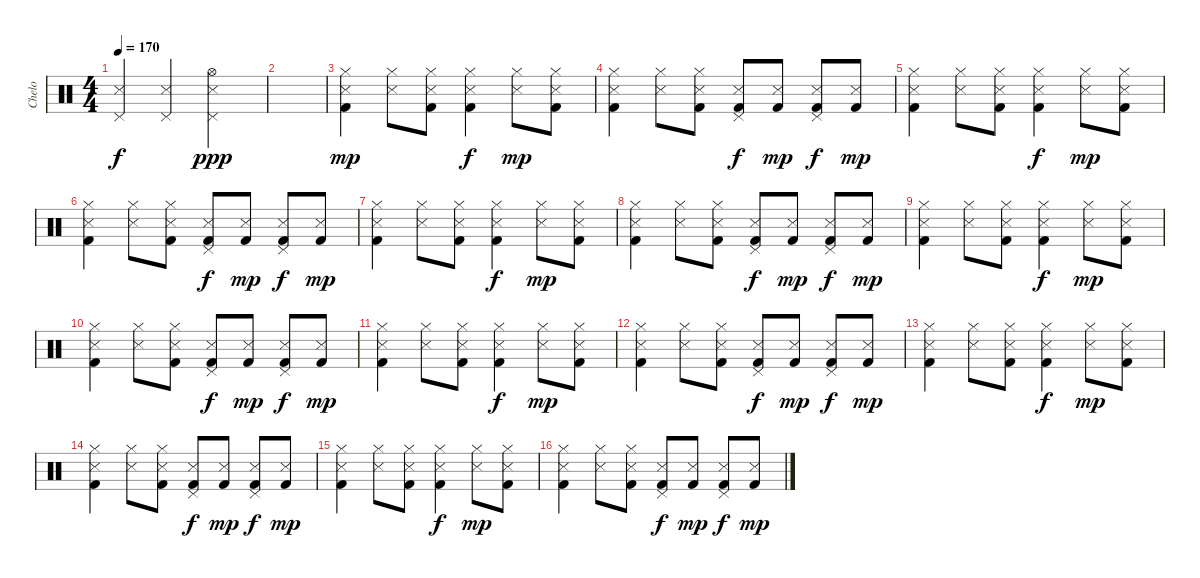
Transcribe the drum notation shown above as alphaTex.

\track ("Chelo" "Chelo") {instrument percussion}
\staff {score}
\articulation defaults
\ts (4 4)
\tempo 170
\clef neutral
\ks c
("Snare (side stick) 3" "Pedal Hi-Hat (hit)").4{dy f} ("Snare (side stick) 3" "Pedal Hi-Hat (hit)").4 ("Snare (side stick) 3" "Pedal Hi-Hat (hit)" "Hi-Hat (open)").2{dy ppp} |
|
("Kick (hit) 2" "Hi-Hat (closed)" "Snare (side stick) 3").4{dy mp} ("Snare (side stick) 3" "Hi-Hat (closed)").8 ("Kick (hit) 2" "Hi-Hat (closed)" "Snare (side stick) 3").8 ("Kick (hit) 2" "Hi-Hat (closed)" "Snare (side stick) 3").4{dy f} ("Snare (side stick) 3" "Hi-Hat (closed)").8{dy mp} ("Kick (hit) 2" "Hi-Hat (closed)" "Snare (side stick) 3").8 |
("Kick (hit) 2" "Hi-Hat (closed)" "Snare (side stick) 3").4 ("Snare (side stick) 3" "Hi-Hat (closed)").8 ("Kick (hit) 2" "Hi-Hat (closed)" "Snare (side stick) 3").8 ("Kick (hit) 2" "Pedal Hi-Hat (hit)" "Snare (side stick) 3").8{dy f} ("Kick (hit) 2" "Snare (side stick) 3").8{dy mp} ("Kick (hit) 2" "Pedal Hi-Hat (hit)" "Snare (side stick) 3").8{dy f} ("Kick (hit) 2" "Snare (side stick) 3").8{dy mp} |
("Kick (hit) 2" "Hi-Hat (closed)" "Snare (side stick) 3").4 ("Snare (side stick) 3" "Hi-Hat (closed)").8 ("Kick (hit) 2" "Hi-Hat (closed)" "Snare (side stick) 3").8 ("Kick (hit) 2" "Hi-Hat (closed)" "Snare (side stick) 3").4{dy f} ("Snare (side stick) 3" "Hi-Hat (closed)").8{dy mp} ("Kick (hit) 2" "Hi-Hat (closed)" "Snare (side stick) 3").8 |
("Kick (hit) 2" "Hi-Hat (closed)" "Snare (side stick) 3").4 ("Snare (side stick) 3" "Hi-Hat (closed)").8 ("Kick (hit) 2" "Hi-Hat (closed)" "Snare (side stick) 3").8 ("Kick (hit) 2" "Pedal Hi-Hat (hit)" "Snare (side stick) 3").8{dy f} ("Kick (hit) 2" "Snare (side stick) 3").8{dy mp} ("Kick (hit) 2" "Pedal Hi-Hat (hit)" "Snare (side stick) 3").8{dy f} ("Kick (hit) 2" "Snare (side stick) 3").8{dy mp} |
("Kick (hit) 2" "Hi-Hat (closed)" "Snare (side stick) 3").4 ("Snare (side stick) 3" "Hi-Hat (closed)").8 ("Kick (hit) 2" "Hi-Hat (closed)" "Snare (side stick) 3").8 ("Kick (hit) 2" "Hi-Hat (closed)" "Snare (side stick) 3").4{dy f} ("Snare (side stick) 3" "Hi-Hat (closed)").8{dy mp} ("Kick (hit) 2" "Hi-Hat (closed)" "Snare (side stick) 3").8 |
("Kick (hit) 2" "Hi-Hat (closed)" "Snare (side stick) 3").4 ("Snare (side stick) 3" "Hi-Hat (closed)").8 ("Kick (hit) 2" "Hi-Hat (closed)" "Snare (side stick) 3").8 ("Kick (hit) 2" "Pedal Hi-Hat (hit)" "Snare (side stick) 3").8{dy f} ("Kick (hit) 2" "Snare (side stick) 3").8{dy mp} ("Kick (hit) 2" "Pedal Hi-Hat (hit)" "Snare (side stick) 3").8{dy f} ("Kick (hit) 2" "Snare (side stick) 3").8{dy mp} |
("Kick (hit) 2" "Hi-Hat (closed)" "Snare (side stick) 3").4 ("Snare (side stick) 3" "Hi-Hat (closed)").8 ("Kick (hit) 2" "Hi-Hat (closed)" "Snare (side stick) 3").8 ("Kick (hit) 2" "Hi-Hat (closed)" "Snare (side stick) 3").4{dy f} ("Snare (side stick) 3" "Hi-Hat (closed)").8{dy mp} ("Kick (hit) 2" "Hi-Hat (closed)" "Snare (side stick) 3").8 |
("Kick (hit) 2" "Hi-Hat (closed)" "Snare (side stick) 3").4 ("Snare (side stick) 3" "Hi-Hat (closed)").8 ("Kick (hit) 2" "Hi-Hat (closed)" "Snare (side stick) 3").8 ("Kick (hit) 2" "Pedal Hi-Hat (hit)" "Snare (side stick) 3").8{dy f} ("Kick (hit) 2" "Snare (side stick) 3").8{dy mp} ("Kick (hit) 2" "Pedal Hi-Hat (hit)" "Snare (side stick) 3").8{dy f} ("Kick (hit) 2" "Snare (side stick) 3").8{dy mp} |
("Kick (hit) 2" "Hi-Hat (closed)" "Snare (side stick) 3").4 ("Snare (side stick) 3" "Hi-Hat (closed)").8 ("Kick (hit) 2" "Hi-Hat (closed)" "Snare (side stick) 3").8 ("Kick (hit) 2" "Hi-Hat (closed)" "Snare (side stick) 3").4{dy f} ("Snare (side stick) 3" "Hi-Hat (closed)").8{dy mp} ("Kick (hit) 2" "Hi-Hat (closed)" "Snare (side stick) 3").8 |
("Kick (hit) 2" "Hi-Hat (closed)" "Snare (side stick) 3").4 ("Snare (side stick) 3" "Hi-Hat (closed)").8 ("Kick (hit) 2" "Hi-Hat (closed)" "Snare (side stick) 3").8 ("Kick (hit) 2" "Pedal Hi-Hat (hit)" "Snare (side stick) 3").8{dy f} ("Kick (hit) 2" "Snare (side stick) 3").8{dy mp} ("Kick (hit) 2" "Pedal Hi-Hat (hit)" "Snare (side stick) 3").8{dy f} ("Kick (hit) 2" "Snare (side stick) 3").8{dy mp} |
("Kick (hit) 2" "Hi-Hat (closed)" "Snare (side stick) 3").4 ("Snare (side stick) 3" "Hi-Hat (closed)").8 ("Kick (hit) 2" "Hi-Hat (closed)" "Snare (side stick) 3").8 ("Kick (hit) 2" "Hi-Hat (closed)" "Snare (side stick) 3").4{dy f} ("Snare (side stick) 3" "Hi-Hat (closed)").8{dy mp} ("Kick (hit) 2" "Hi-Hat (closed)" "Snare (side stick) 3").8 |
("Kick (hit) 2" "Hi-Hat (closed)" "Snare (side stick) 3").4 ("Snare (side stick) 3" "Hi-Hat (closed)").8 ("Kick (hit) 2" "Hi-Hat (closed)" "Snare (side stick) 3").8 ("Kick (hit) 2" "Pedal Hi-Hat (hit)" "Snare (side stick) 3").8{dy f} ("Kick (hit) 2" "Snare (side stick) 3").8{dy mp} ("Kick (hit) 2" "Pedal Hi-Hat (hit)" "Snare (side stick) 3").8{dy f} ("Kick (hit) 2" "Snare (side stick) 3").8{dy mp} |
("Kick (hit) 2" "Hi-Hat (closed)" "Snare (side stick) 3").4 ("Snare (side stick) 3" "Hi-Hat (closed)").8 ("Kick (hit) 2" "Hi-Hat (closed)" "Snare (side stick) 3").8 ("Kick (hit) 2" "Hi-Hat (closed)" "Snare (side stick) 3").4{dy f} ("Snare (side stick) 3" "Hi-Hat (closed)").8{dy mp} ("Kick (hit) 2" "Hi-Hat (closed)" "Snare (side stick) 3").8 |
("Kick (hit) 2" "Hi-Hat (closed)" "Snare (side stick) 3").4 ("Snare (side stick) 3" "Hi-Hat (closed)").8 ("Kick (hit) 2" "Hi-Hat (closed)" "Snare (side stick) 3").8 ("Kick (hit) 2" "Pedal Hi-Hat (hit)" "Snare (side stick) 3").8{dy f} ("Kick (hit) 2" "Snare (side stick) 3").8{dy mp} ("Kick (hit) 2" "Pedal Hi-Hat (hit)" "Snare (side stick) 3").8{dy f} ("Kick (hit) 2" "Snare (side stick) 3").8{dy mp}
